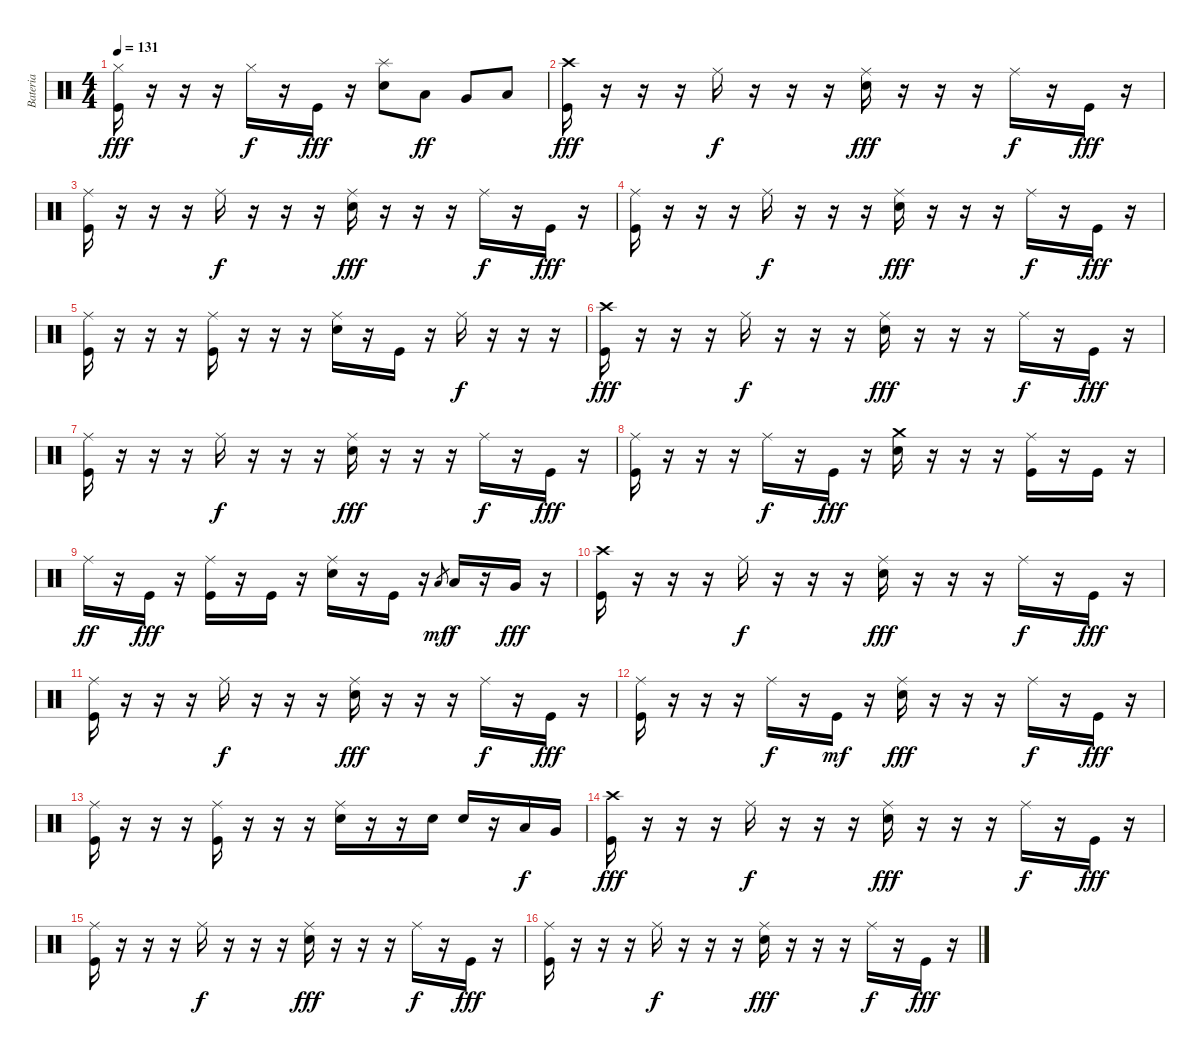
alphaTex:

\track ("Bateria" "Bateria") {instrument percussion}
\staff {score}
\articulation defaults
\ts (4 4)
\tempo 131
\clef neutral
\ks c
("Hi-Hat (closed)" "Kick (hit)").16{dy fff} r.16 r.16 r.16 "Hi-Hat (closed)".16{dy f} r.16 "Kick (hit)".16{dy fff} r.16 ("Splash (hit)" "Electric Snare (hit)").8 "Low Tom (hit)".8{dy ff} "Very Low Tom (hit)".8 "Low Floor Tom (hit)".8 |
("Crash high (hit)" "Kick (hit)").16{dy fff} r.16 r.16 r.16 "Ride (middle)".16{dy f} r.16 r.16 r.16 ("Ride (middle)" "Electric Snare (hit)").16{dy fff} r.16 r.16 r.16 "Ride (middle)".16{dy f} r.16 "Kick (hit)".16{dy fff} r.16 |
("Ride (middle)" "Kick (hit)").16 r.16 r.16 r.16 "Ride (middle)".16{dy f} r.16 r.16 r.16 ("Ride (middle)" "Electric Snare (hit)").16{dy fff} r.16 r.16 r.16 "Ride (middle)".16{dy f} r.16 "Kick (hit)".16{dy fff} r.16 |
("Ride (middle)" "Kick (hit)").16 r.16 r.16 r.16 "Ride (middle)".16{dy f} r.16 r.16 r.16 ("Ride (middle)" "Electric Snare (hit)").16{dy fff} r.16 r.16 r.16 "Ride (middle)".16{dy f} r.16 "Kick (hit)".16{dy fff} r.16 |
("Ride (middle)" "Kick (hit)").16 r.16 r.16 r.16 ("Ride (middle)" "Kick (hit)").16 r.16 r.16 r.16 ("Ride (middle)" "Electric Snare (hit)").16 r.16 "Kick (hit)".16 r.16 "Ride (middle)".16{dy f} r.16 r.16 r.16 |
("Crash high (hit)" "Kick (hit)").16{dy fff} r.16 r.16 r.16 "Ride (middle)".16{dy f} r.16 r.16 r.16 ("Ride (middle)" "Electric Snare (hit)").16{dy fff} r.16 r.16 r.16 "Ride (middle)".16{dy f} r.16 "Kick (hit)".16{dy fff} r.16 |
("Ride (middle)" "Kick (hit)").16 r.16 r.16 r.16 "Ride (middle)".16{dy f} r.16 r.16 r.16 ("Ride (middle)" "Electric Snare (hit)").16{dy fff} r.16 r.16 r.16 "Ride (middle)".16{dy f} r.16 "Kick (hit)".16{dy fff} r.16 |
("Ride (middle)" "Kick (hit)").16 r.16 r.16 r.16 "Ride (middle)".16{dy f} r.16 "Kick (hit)".16{dy fff} r.16 ("Crash medium (hit)" "Electric Snare (hit)").16 r.16 r.16 r.16 ("Ride (middle)" "Kick (hit)").16 r.16 "Kick (hit)".16 r.16 |
"Ride (middle)".16{dy ff} r.16 "Kick (hit)".16{dy fff} r.16 ("Ride (middle)" "Kick (hit)").16 r.16 "Kick (hit)".16 r.16 ("Ride (middle)" "Electric Snare (hit)").16 r.16 "Kick (hit)".16 r.16 "Low Tom (hit)".8{gr dy mf} "Low Tom (hit)".16{dy f} r.16 "Very Low Tom (hit)".16{dy fff} r.16 |
("Crash high (hit)" "Kick (hit)").16 r.16 r.16 r.16 "Ride (middle)".16{dy f} r.16 r.16 r.16 ("Ride (middle)" "Electric Snare (hit)").16{dy fff} r.16 r.16 r.16 "Ride (middle)".16{dy f} r.16 "Kick (hit)".16{dy fff} r.16 |
("Ride (middle)" "Kick (hit)").16 r.16 r.16 r.16 "Ride (middle)".16{dy f} r.16 r.16 r.16 ("Ride (middle)" "Electric Snare (hit)").16{dy fff} r.16 r.16 r.16 "Ride (middle)".16{dy f} r.16 "Kick (hit)".16{dy fff} r.16 |
("Ride (middle)" "Kick (hit)").16 r.16 r.16 r.16 "Ride (middle)".16{dy f} r.16 "Kick (hit)".16{dy mf} r.16 ("Ride (middle)" "Electric Snare (hit)").16{dy fff} r.16 r.16 r.16 "Ride (middle)".16{dy f} r.16 "Kick (hit)".16{dy fff} r.16 |
("Ride (middle)" "Kick (hit)").16 r.16 r.16 r.16 ("Ride (middle)" "Kick (hit)").16 r.16 r.16 r.16 ("Ride (middle)" "Electric Snare (hit)").16 r.16 r.16 "Electric Snare (hit)".16 "Electric Snare (hit)".16 r.16 "Low Tom (hit)".16{dy f} "Very Low Tom (hit)".16 |
("Crash high (hit)" "Kick (hit)").16{dy fff} r.16 r.16 r.16 "Ride (middle)".16{dy f} r.16 r.16 r.16 ("Ride (middle)" "Electric Snare (hit)").16{dy fff} r.16 r.16 r.16 "Ride (middle)".16{dy f} r.16 "Kick (hit)".16{dy fff} r.16 |
("Ride (middle)" "Kick (hit)").16 r.16 r.16 r.16 "Ride (middle)".16{dy f} r.16 r.16 r.16 ("Ride (middle)" "Electric Snare (hit)").16{dy fff} r.16 r.16 r.16 "Ride (middle)".16{dy f} r.16 "Kick (hit)".16{dy fff} r.16 |
("Ride (middle)" "Kick (hit)").16 r.16 r.16 r.16 "Ride (middle)".16{dy f} r.16 r.16 r.16 ("Ride (middle)" "Electric Snare (hit)").16{dy fff} r.16 r.16 r.16 "Ride (middle)".16{dy f} r.16 "Kick (hit)".16{dy fff} r.16
